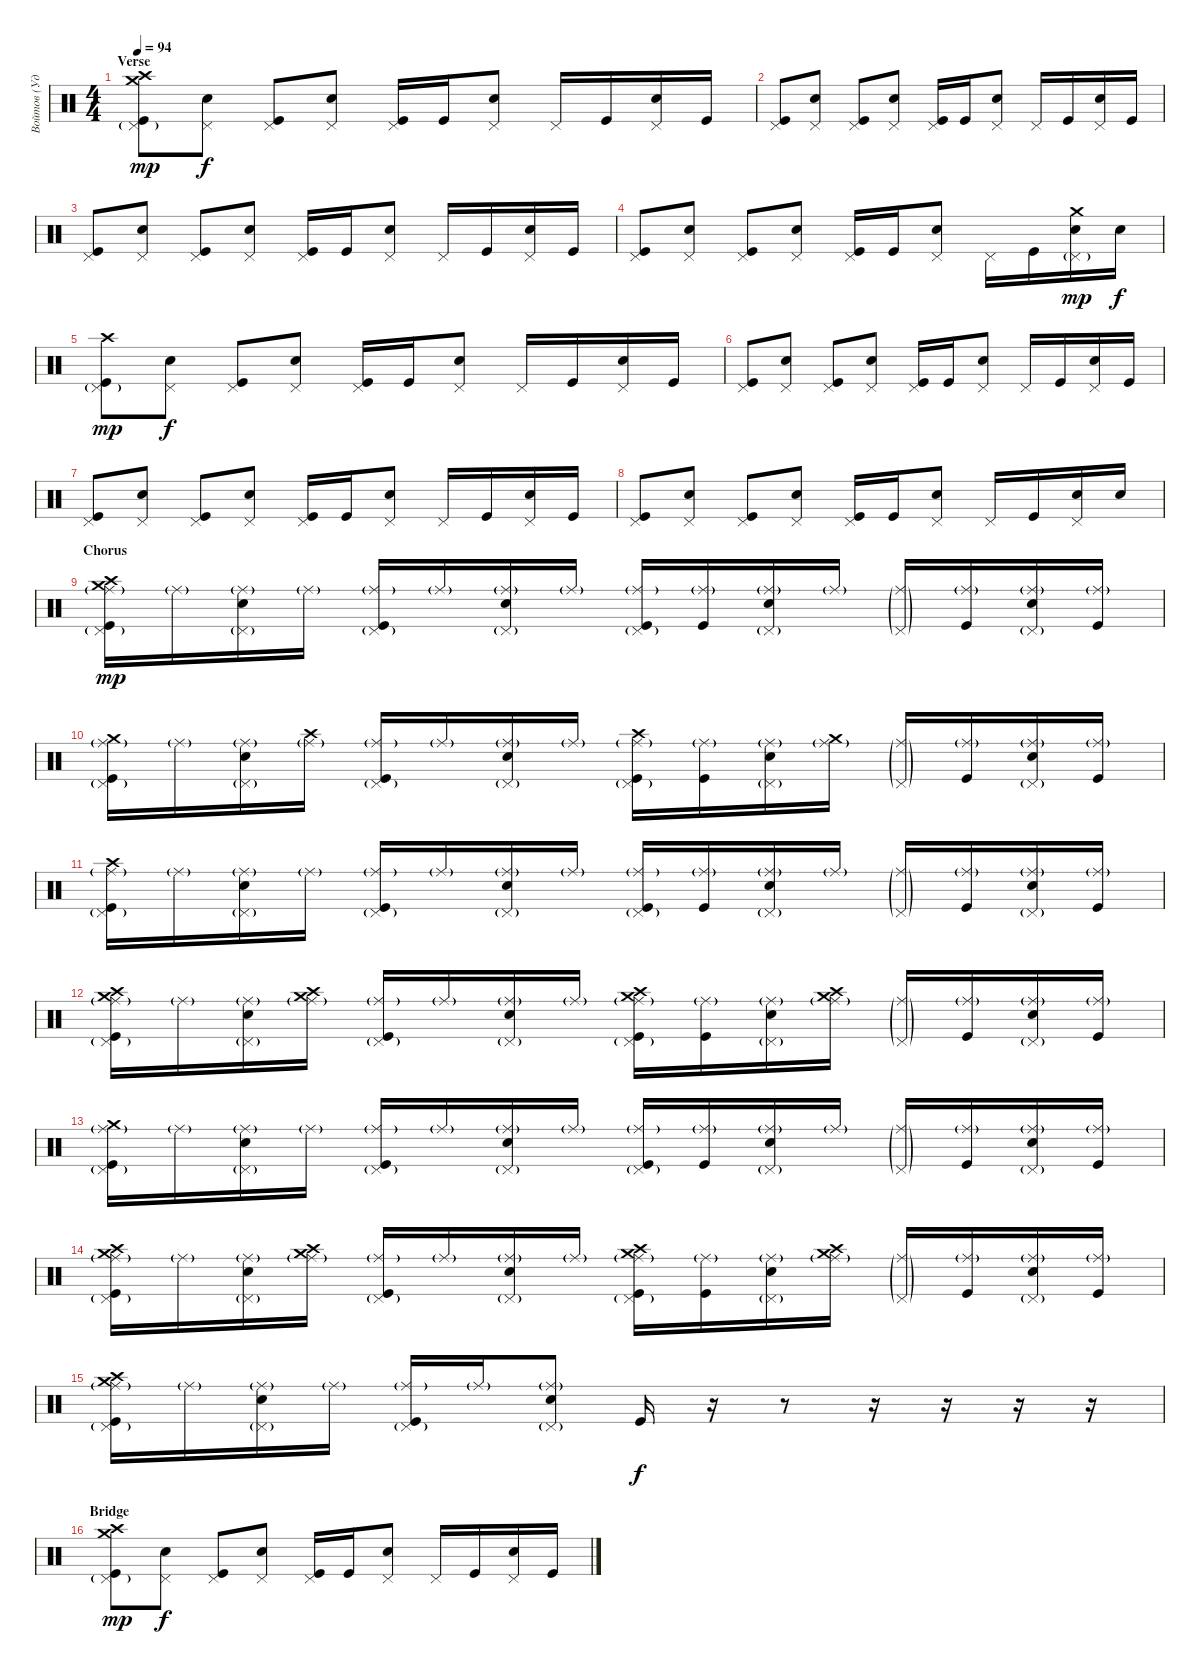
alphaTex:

\track ("Войтов (Ударные)" "Войтов (Уд") {instrument percussion}
\staff {score}
\articulation defaults
\ts (4 4)
\section ("" "Verse")
\tempo 94
\clef neutral
\ks c
("Crash high (hit)" "Crash medium (hit)" "Pedal Hi-Hat (hit)"{g} "Kick (hit)").8{dy mp} ("Pedal Hi-Hat (hit)" "Electric Snare (hit)").8{dy f} ("Pedal Hi-Hat (hit)" "Kick (hit)").8 ("Pedal Hi-Hat (hit)" "Electric Snare (hit)").8 ("Pedal Hi-Hat (hit)" "Kick (hit)").16 "Kick (hit)".16 ("Pedal Hi-Hat (hit)" "Electric Snare (hit)").8 "Pedal Hi-Hat (hit)".16 "Kick (hit)".16 ("Pedal Hi-Hat (hit)" "Electric Snare (hit)").16 "Kick (hit)".16 |
("Pedal Hi-Hat (hit)" "Kick (hit)").8 ("Pedal Hi-Hat (hit)" "Electric Snare (hit)").8 ("Pedal Hi-Hat (hit)" "Kick (hit)").8 ("Pedal Hi-Hat (hit)" "Electric Snare (hit)").8 ("Pedal Hi-Hat (hit)" "Kick (hit)").16 "Kick (hit)".16 ("Pedal Hi-Hat (hit)" "Electric Snare (hit)").8 "Pedal Hi-Hat (hit)".16 "Kick (hit)".16 ("Pedal Hi-Hat (hit)" "Electric Snare (hit)").16 "Kick (hit)".16 |
("Pedal Hi-Hat (hit)" "Kick (hit)").8 ("Pedal Hi-Hat (hit)" "Electric Snare (hit)").8 ("Pedal Hi-Hat (hit)" "Kick (hit)").8 ("Pedal Hi-Hat (hit)" "Electric Snare (hit)").8 ("Pedal Hi-Hat (hit)" "Kick (hit)").16 "Kick (hit)".16 ("Pedal Hi-Hat (hit)" "Electric Snare (hit)").8 "Pedal Hi-Hat (hit)".16 "Kick (hit)".16 ("Pedal Hi-Hat (hit)" "Electric Snare (hit)").16 "Kick (hit)".16 |
("Pedal Hi-Hat (hit)" "Kick (hit)").8 ("Pedal Hi-Hat (hit)" "Electric Snare (hit)").8 ("Pedal Hi-Hat (hit)" "Kick (hit)").8 ("Pedal Hi-Hat (hit)" "Electric Snare (hit)").8 ("Pedal Hi-Hat (hit)" "Kick (hit)").16 "Kick (hit)".16 ("Pedal Hi-Hat (hit)" "Electric Snare (hit)").8 "Pedal Hi-Hat (hit)".16 "Kick (hit)".16 ("Crash medium (hit)" "Pedal Hi-Hat (hit)"{g} "Electric Snare (hit)").16{dy mp} "Electric Snare (hit)".16{dy f} |
("Crash high (hit)" "Pedal Hi-Hat (hit)"{g} "Kick (hit)").8{dy mp} ("Pedal Hi-Hat (hit)" "Electric Snare (hit)").8{dy f} ("Pedal Hi-Hat (hit)" "Kick (hit)").8 ("Pedal Hi-Hat (hit)" "Electric Snare (hit)").8 ("Pedal Hi-Hat (hit)" "Kick (hit)").16 "Kick (hit)".16 ("Pedal Hi-Hat (hit)" "Electric Snare (hit)").8 "Pedal Hi-Hat (hit)".16 "Kick (hit)".16 ("Pedal Hi-Hat (hit)" "Electric Snare (hit)").16 "Kick (hit)".16 |
("Pedal Hi-Hat (hit)" "Kick (hit)").8 ("Pedal Hi-Hat (hit)" "Electric Snare (hit)").8 ("Pedal Hi-Hat (hit)" "Kick (hit)").8 ("Pedal Hi-Hat (hit)" "Electric Snare (hit)").8 ("Pedal Hi-Hat (hit)" "Kick (hit)").16 "Kick (hit)".16 ("Pedal Hi-Hat (hit)" "Electric Snare (hit)").8 "Pedal Hi-Hat (hit)".16 "Kick (hit)".16 ("Pedal Hi-Hat (hit)" "Electric Snare (hit)").16 "Kick (hit)".16 |
("Pedal Hi-Hat (hit)" "Kick (hit)").8 ("Pedal Hi-Hat (hit)" "Electric Snare (hit)").8 ("Pedal Hi-Hat (hit)" "Kick (hit)").8 ("Pedal Hi-Hat (hit)" "Electric Snare (hit)").8 ("Pedal Hi-Hat (hit)" "Kick (hit)").16 "Kick (hit)".16 ("Pedal Hi-Hat (hit)" "Electric Snare (hit)").8 "Pedal Hi-Hat (hit)".16 "Kick (hit)".16 ("Pedal Hi-Hat (hit)" "Electric Snare (hit)").16 "Kick (hit)".16 |
("Pedal Hi-Hat (hit)" "Kick (hit)").8 ("Pedal Hi-Hat (hit)" "Electric Snare (hit)").8 ("Pedal Hi-Hat (hit)" "Kick (hit)").8 ("Pedal Hi-Hat (hit)" "Electric Snare (hit)").8 ("Pedal Hi-Hat (hit)" "Kick (hit)").16 "Kick (hit)".16 ("Pedal Hi-Hat (hit)" "Electric Snare (hit)").8 "Pedal Hi-Hat (hit)".16 "Kick (hit)".16 ("Pedal Hi-Hat (hit)" "Electric Snare (hit)").16 "Electric Snare (hit)".16 |
\section ("" "Chorus")
("Crash high (hit)" "Ride (middle)"{g} "Crash medium (hit)" "Pedal Hi-Hat (hit)"{g} "Kick (hit)").16{dy mp} "Ride (middle)"{g}.16 ("Ride (middle)"{g} "Pedal Hi-Hat (hit)"{g} "Electric Snare (hit)").16 "Ride (middle)"{g}.16 ("Ride (middle)"{g} "Pedal Hi-Hat (hit)"{g} "Kick (hit)").16 "Ride (middle)"{g}.16 ("Ride (middle)"{g} "Pedal Hi-Hat (hit)"{g} "Electric Snare (hit)").16 "Ride (middle)"{g}.16 ("Ride (middle)"{g} "Pedal Hi-Hat (hit)"{g} "Kick (hit)").16 ("Ride (middle)"{g} "Kick (hit)").16 ("Ride (middle)"{g} "Pedal Hi-Hat (hit)"{g} "Electric Snare (hit)").16 "Ride (middle)"{g}.16 ("Ride (middle)"{g} "Pedal Hi-Hat (hit)"{g}).16 ("Ride (middle)"{g} "Kick (hit)").16 ("Ride (middle)"{g} "Pedal Hi-Hat (hit)"{g} "Electric Snare (hit)").16 ("Ride (middle)"{g} "Kick (hit)").16 |
("Crash medium (hit)" "Ride (middle)"{g} "Pedal Hi-Hat (hit)"{g} "Kick (hit)").16 "Ride (middle)"{g}.16 ("Ride (middle)"{g} "Pedal Hi-Hat (hit)"{g} "Electric Snare (hit)").16 ("Crash high (hit)" "Ride (middle)"{g}).16 ("Ride (middle)"{g} "Pedal Hi-Hat (hit)"{g} "Kick (hit)").16 "Ride (middle)"{g}.16 ("Ride (middle)"{g} "Pedal Hi-Hat (hit)"{g} "Electric Snare (hit)").16 "Ride (middle)"{g}.16 ("Crash high (hit)" "Ride (middle)"{g} "Pedal Hi-Hat (hit)"{g} "Kick (hit)").16 ("Ride (middle)"{g} "Kick (hit)").16 ("Ride (middle)"{g} "Pedal Hi-Hat (hit)"{g} "Electric Snare (hit)").16 ("Crash medium (hit)" "Ride (middle)"{g}).16 ("Ride (middle)"{g} "Pedal Hi-Hat (hit)"{g}).16 ("Ride (middle)"{g} "Kick (hit)").16 ("Ride (middle)"{g} "Pedal Hi-Hat (hit)"{g} "Electric Snare (hit)").16 ("Ride (middle)"{g} "Kick (hit)").16 |
("Crash high (hit)" "Ride (middle)"{g} "Pedal Hi-Hat (hit)"{g} "Kick (hit)").16 "Ride (middle)"{g}.16 ("Ride (middle)"{g} "Pedal Hi-Hat (hit)"{g} "Electric Snare (hit)").16 "Ride (middle)"{g}.16 ("Ride (middle)"{g} "Pedal Hi-Hat (hit)"{g} "Kick (hit)").16 "Ride (middle)"{g}.16 ("Ride (middle)"{g} "Pedal Hi-Hat (hit)"{g} "Electric Snare (hit)").16 "Ride (middle)"{g}.16 ("Ride (middle)"{g} "Pedal Hi-Hat (hit)"{g} "Kick (hit)").16 ("Ride (middle)"{g} "Kick (hit)").16 ("Ride (middle)"{g} "Pedal Hi-Hat (hit)"{g} "Electric Snare (hit)").16 "Ride (middle)"{g}.16 ("Ride (middle)"{g} "Pedal Hi-Hat (hit)"{g}).16 ("Ride (middle)"{g} "Kick (hit)").16 ("Ride (middle)"{g} "Pedal Hi-Hat (hit)"{g} "Electric Snare (hit)").16 ("Ride (middle)"{g} "Kick (hit)").16 |
("Crash high (hit)" "Ride (middle)"{g} "Crash medium (hit)" "Pedal Hi-Hat (hit)"{g} "Kick (hit)").16 "Ride (middle)"{g}.16 ("Ride (middle)"{g} "Pedal Hi-Hat (hit)"{g} "Electric Snare (hit)").16 ("Crash high (hit)" "Ride (middle)"{g} "Crash medium (hit)").16 ("Ride (middle)"{g} "Pedal Hi-Hat (hit)"{g} "Kick (hit)").16 "Ride (middle)"{g}.16 ("Ride (middle)"{g} "Pedal Hi-Hat (hit)"{g} "Electric Snare (hit)").16 "Ride (middle)"{g}.16 ("Crash high (hit)" "Ride (middle)"{g} "Crash medium (hit)" "Pedal Hi-Hat (hit)"{g} "Kick (hit)").16 ("Ride (middle)"{g} "Kick (hit)").16 ("Ride (middle)"{g} "Pedal Hi-Hat (hit)"{g} "Electric Snare (hit)").16 ("Crash high (hit)" "Ride (middle)"{g} "Crash medium (hit)").16 ("Ride (middle)"{g} "Pedal Hi-Hat (hit)"{g}).16 ("Ride (middle)"{g} "Kick (hit)").16 ("Ride (middle)"{g} "Pedal Hi-Hat (hit)"{g} "Electric Snare (hit)").16 ("Ride (middle)"{g} "Kick (hit)").16 |
("Crash medium (hit)" "Ride (middle)"{g} "Pedal Hi-Hat (hit)"{g} "Kick (hit)").16 "Ride (middle)"{g}.16 ("Ride (middle)"{g} "Pedal Hi-Hat (hit)"{g} "Electric Snare (hit)").16 "Ride (middle)"{g}.16 ("Ride (middle)"{g} "Pedal Hi-Hat (hit)"{g} "Kick (hit)").16 "Ride (middle)"{g}.16 ("Ride (middle)"{g} "Pedal Hi-Hat (hit)"{g} "Electric Snare (hit)").16 "Ride (middle)"{g}.16 ("Ride (middle)"{g} "Pedal Hi-Hat (hit)"{g} "Kick (hit)").16 ("Ride (middle)"{g} "Kick (hit)").16 ("Ride (middle)"{g} "Pedal Hi-Hat (hit)"{g} "Electric Snare (hit)").16 "Ride (middle)"{g}.16 ("Ride (middle)"{g} "Pedal Hi-Hat (hit)"{g}).16 ("Ride (middle)"{g} "Kick (hit)").16 ("Ride (middle)"{g} "Pedal Hi-Hat (hit)"{g} "Electric Snare (hit)").16 ("Ride (middle)"{g} "Kick (hit)").16 |
("Crash high (hit)" "Ride (middle)"{g} "Crash medium (hit)" "Pedal Hi-Hat (hit)"{g} "Kick (hit)").16 "Ride (middle)"{g}.16 ("Ride (middle)"{g} "Pedal Hi-Hat (hit)"{g} "Electric Snare (hit)").16 ("Crash high (hit)" "Ride (middle)"{g} "Crash medium (hit)").16 ("Ride (middle)"{g} "Pedal Hi-Hat (hit)"{g} "Kick (hit)").16 "Ride (middle)"{g}.16 ("Ride (middle)"{g} "Pedal Hi-Hat (hit)"{g} "Electric Snare (hit)").16 "Ride (middle)"{g}.16 ("Crash high (hit)" "Ride (middle)"{g} "Crash medium (hit)" "Pedal Hi-Hat (hit)"{g} "Kick (hit)").16 ("Ride (middle)"{g} "Kick (hit)").16 ("Ride (middle)"{g} "Pedal Hi-Hat (hit)"{g} "Electric Snare (hit)").16 ("Crash high (hit)" "Ride (middle)"{g} "Crash medium (hit)").16 ("Ride (middle)"{g} "Pedal Hi-Hat (hit)"{g}).16 ("Ride (middle)"{g} "Kick (hit)").16 ("Ride (middle)"{g} "Pedal Hi-Hat (hit)"{g} "Electric Snare (hit)").16 ("Ride (middle)"{g} "Kick (hit)").16 |
("Crash high (hit)" "Ride (middle)"{g} "Crash medium (hit)" "Pedal Hi-Hat (hit)"{g} "Kick (hit)").16 "Ride (middle)"{g}.16 ("Ride (middle)"{g} "Pedal Hi-Hat (hit)"{g} "Electric Snare (hit)").16 "Ride (middle)"{g}.16 ("Ride (middle)"{g} "Pedal Hi-Hat (hit)"{g} "Kick (hit)").16 "Ride (middle)"{g}.16 ("Ride (middle)"{g} "Pedal Hi-Hat (hit)"{g} "Electric Snare (hit)").8 "Kick (hit)".16{dy f} r.16 r.8 r.16 r.16 r.16 r.16 |
\section ("" "Bridge")
("Crash medium (hit)" "Crash high (hit)" "Pedal Hi-Hat (hit)"{g} "Kick (hit)").8{dy mp} ("Pedal Hi-Hat (hit)" "Electric Snare (hit)").8{dy f} ("Pedal Hi-Hat (hit)" "Kick (hit)").8 ("Pedal Hi-Hat (hit)" "Electric Snare (hit)").8 ("Pedal Hi-Hat (hit)" "Kick (hit)").16 "Kick (hit)".16 ("Pedal Hi-Hat (hit)" "Electric Snare (hit)").8 "Pedal Hi-Hat (hit)".16 "Kick (hit)".16 ("Pedal Hi-Hat (hit)" "Electric Snare (hit)").16 "Kick (hit)".16
